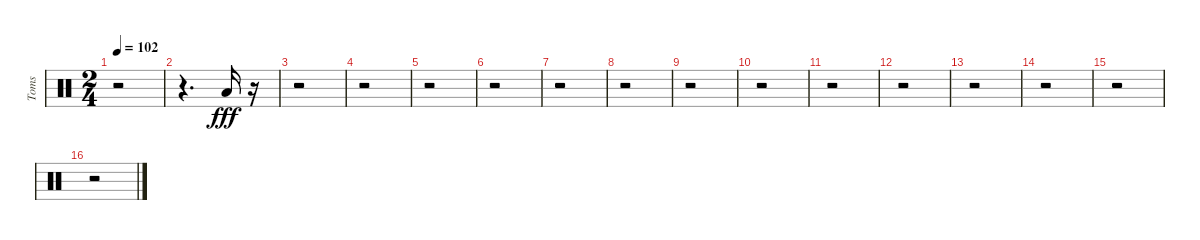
\track ("Toms" "Toms") {instrument percussion}
\staff {score}
\articulation defaults
\ts (2 4)
\tempo 102
\clef neutral
\ks c
r.2{dy fff} |
r.4{d} "Low Floor Tom (hit)".16 r.16 |
r.2 |
r.2 |
r.2 |
r.2 |
r.2 |
r.2 |
r.2 |
r.2 |
r.2 |
r.2 |
r.2 |
r.2 |
r.2 |
r.2
